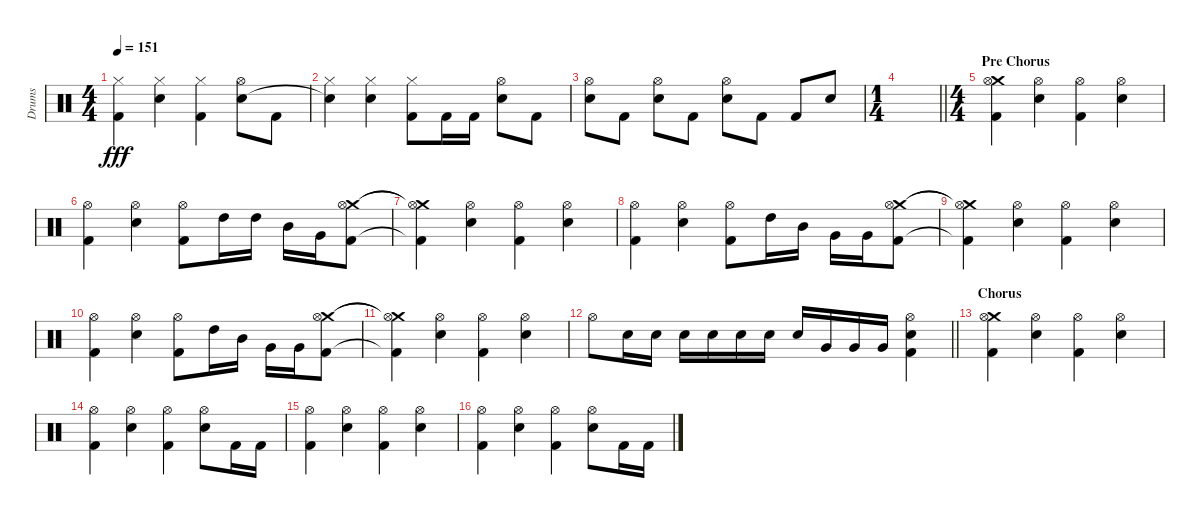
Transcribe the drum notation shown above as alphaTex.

\track ("Drums" "Drums") {instrument percussion}
\staff {score}
\articulation defaults
\ts (4 4)
\tempo 151
\clef neutral
\ks c
("Hi-Hat (closed)" "Kick (hit) 2").4{dy fff} ("Hi-Hat (closed)" "Electric Snare (hit)").4 ("Hi-Hat (closed)" "Kick (hit) 2").4 ("Hi-Hat (open)" "Electric Snare (hit)").8 "Kick (hit) 2".8 |
("Hi-Hat (closed)" "Snare (hit)"{t}).4 ("Hi-Hat (closed)" "Electric Snare (hit)").4 ("Hi-Hat (closed)" "Kick (hit) 2").8 "Kick (hit) 2".16 "Kick (hit) 2".16 ("Hi-Hat (open)" "Electric Snare (hit)").8 "Kick (hit) 2".8 |
("Hi-Hat (open)" "Electric Snare (hit)").8 "Kick (hit) 2".8 ("Hi-Hat (open)" "Electric Snare (hit)").8 "Kick (hit) 2".8 ("Hi-Hat (open)" "Electric Snare (hit)").8 "Kick (hit) 2".8 "Kick (hit) 2".8 "Electric Snare (hit)".8 |
\ts (1 4)
\barLineRight lightlight
|
\ts (4 4)
\section ("" "Pre Chorus")
("Crash medium (hit)" "Hi-Hat (open)" "Kick (hit) 2").4 ("Hi-Hat (open)" "Electric Snare (hit)").4 ("Hi-Hat (open)" "Kick (hit) 2").4 ("Hi-Hat (open)" "Electric Snare (hit)").4 |
("Hi-Hat (open)" "Kick (hit) 2").4 ("Hi-Hat (open)" "Electric Snare (hit)").4 ("Hi-Hat (open)" "Kick (hit) 2").8 "High Tom (hit)".16 "High Tom (hit)".16 "Mid Tom (hit)".16 "Very Low Tom (hit)".16 ("Crash medium (hit)" "Hi-Hat (open)" "Kick (hit) 2").8 |
("Crash medium (hit)"{t} "Hi-Hat (open)"{t} "Kick (hit) 2"{t}).4 ("Hi-Hat (open)" "Electric Snare (hit)").4 ("Hi-Hat (open)" "Kick (hit) 2").4 ("Hi-Hat (open)" "Electric Snare (hit)").4 |
("Hi-Hat (open)" "Kick (hit) 2").4 ("Hi-Hat (open)" "Electric Snare (hit)").4 ("Hi-Hat (open)" "Kick (hit) 2").8 "High Tom (hit)".16 "Mid Tom (hit)".16 "Very Low Tom (hit)".16 "Very Low Tom (hit)".16 ("Crash medium (hit)" "Hi-Hat (open)" "Kick (hit) 2").8 |
("Crash medium (hit)"{t} "Hi-Hat (open)"{t} "Kick (hit) 2"{t}).4 ("Hi-Hat (open)" "Electric Snare (hit)").4 ("Hi-Hat (open)" "Kick (hit) 2").4 ("Hi-Hat (open)" "Electric Snare (hit)").4 |
("Hi-Hat (open)" "Kick (hit) 2").4 ("Hi-Hat (open)" "Electric Snare (hit)").4 ("Hi-Hat (open)" "Kick (hit) 2").8 "High Tom (hit)".16 "Mid Tom (hit)".16 "Very Low Tom (hit)".16 "Very Low Tom (hit)".16 ("Crash medium (hit)" "Hi-Hat (open)" "Kick (hit) 2").8 |
("Crash medium (hit)"{t} "Hi-Hat (open)"{t} "Kick (hit) 2"{t}).4 ("Hi-Hat (open)" "Electric Snare (hit)").4 ("Hi-Hat (open)" "Kick (hit) 2").4 ("Hi-Hat (open)" "Electric Snare (hit)").4 |
\barLineRight lightlight "Hi-Hat (open)".8 "Electric Snare (hit)".16 "Electric Snare (hit)".16 "Electric Snare (hit)".16 "Electric Snare (hit)".16 "Electric Snare (hit)".16 "Electric Snare (hit)".16 "Electric Snare (hit)".16 "Very Low Tom (hit)".16 "Very Low Tom (hit)".16 "Very Low Tom (hit)".16
("Hi-Hat (open)" "Electric Snare (hit)" "Kick (hit) 2").4 |
\section ("" "Chorus")
("Crash medium (hit)" "Hi-Hat (open)" "Kick (hit) 2").4 ("Hi-Hat (open)" "Electric Snare (hit)").4 ("Hi-Hat (open)" "Kick (hit) 2").4 ("Hi-Hat (open)" "Electric Snare (hit)").4 |
("Hi-Hat (open)" "Kick (hit) 2").4 ("Hi-Hat (open)" "Electric Snare (hit)").4 ("Hi-Hat (open)" "Kick (hit) 2").4 ("Hi-Hat (open)" "Electric Snare (hit)").8 "Kick (hit) 2".16 "Kick (hit) 2".16 |
("Hi-Hat (open)" "Kick (hit) 2").4 ("Hi-Hat (open)" "Electric Snare (hit)").4 ("Hi-Hat (open)" "Kick (hit) 2").4 ("Hi-Hat (open)" "Electric Snare (hit)").4 |
("Hi-Hat (open)" "Kick (hit) 2").4 ("Hi-Hat (open)" "Electric Snare (hit)").4 ("Hi-Hat (open)" "Kick (hit) 2").4 ("Hi-Hat (open)" "Electric Snare (hit)").8 "Kick (hit) 2".16 "Kick (hit) 2".16
